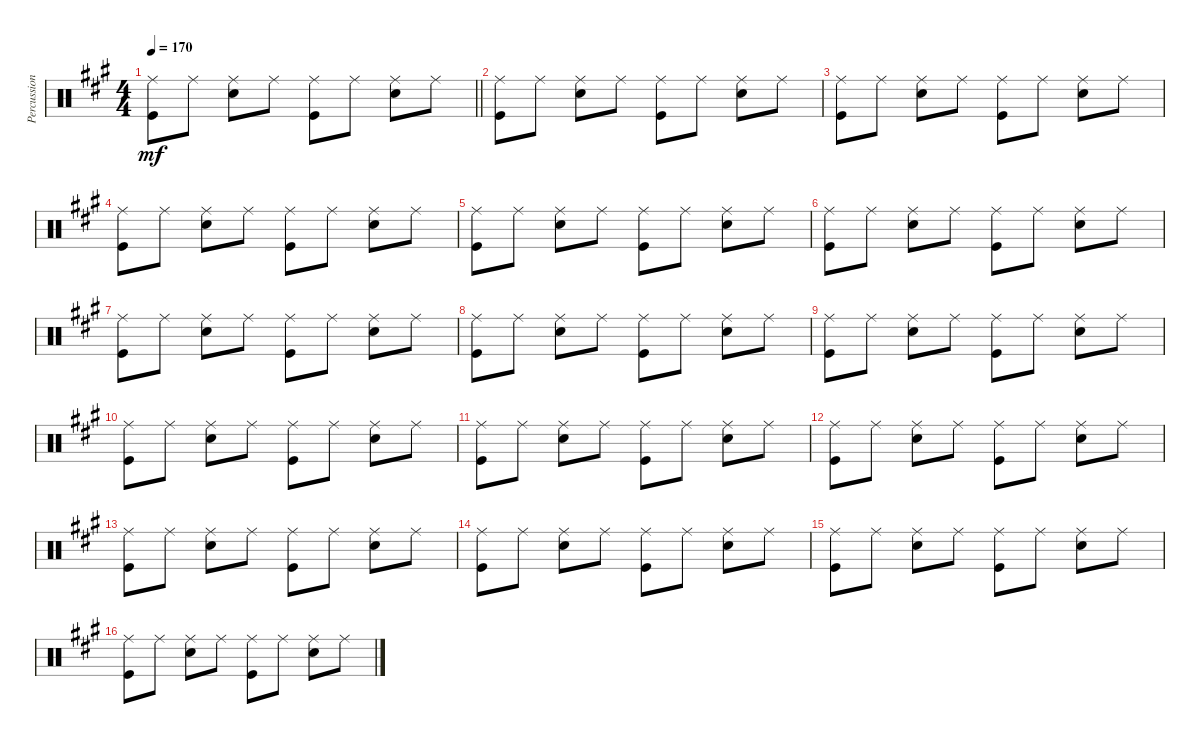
\track ("Percussion" "Percussion") {instrument percussion}
\staff {score}
\articulation defaults
\ts (4 4)
\tempo 170
\clef neutral
\barLineRight lightlight
\ks a
("Ride (middle)" "Kick (hit)").8{dy mf} "Ride (middle)".8 ("Ride (middle)" "Snare (hit) 2").8 "Ride (middle)".8 ("Ride (middle)" "Kick (hit)").8 "Ride (middle)".8 ("Ride (middle)" "Snare (hit) 2").8 "Ride (middle)".8 |
("Ride (middle)" "Kick (hit)").8 "Ride (middle)".8 ("Ride (middle)" "Snare (hit) 2").8 "Ride (middle)".8 ("Ride (middle)" "Kick (hit)").8 "Ride (middle)".8 ("Ride (middle)" "Snare (hit) 2").8 "Ride (middle)".8 |
("Ride (middle)" "Kick (hit)").8 "Ride (middle)".8 ("Ride (middle)" "Snare (hit) 2").8 "Ride (middle)".8 ("Ride (middle)" "Kick (hit)").8 "Ride (middle)".8 ("Ride (middle)" "Snare (hit) 2").8 "Ride (middle)".8 |
("Ride (middle)" "Kick (hit)").8 "Ride (middle)".8 ("Ride (middle)" "Snare (hit) 2").8 "Ride (middle)".8 ("Ride (middle)" "Kick (hit)").8 "Ride (middle)".8 ("Ride (middle)" "Snare (hit) 2").8 "Ride (middle)".8 |
("Ride (middle)" "Kick (hit)").8 "Ride (middle)".8 ("Ride (middle)" "Snare (hit) 2").8 "Ride (middle)".8 ("Ride (middle)" "Kick (hit)").8 "Ride (middle)".8 ("Ride (middle)" "Snare (hit) 2").8 "Ride (middle)".8 |
("Ride (middle)" "Kick (hit)").8 "Ride (middle)".8 ("Ride (middle)" "Snare (hit) 2").8 "Ride (middle)".8 ("Ride (middle)" "Kick (hit)").8 "Ride (middle)".8 ("Ride (middle)" "Snare (hit) 2").8 "Ride (middle)".8 |
("Ride (middle)" "Kick (hit)").8 "Ride (middle)".8 ("Ride (middle)" "Snare (hit) 2").8 "Ride (middle)".8 ("Ride (middle)" "Kick (hit)").8 "Ride (middle)".8 ("Ride (middle)" "Snare (hit) 2").8 "Ride (middle)".8 |
("Ride (middle)" "Kick (hit)").8 "Ride (middle)".8 ("Ride (middle)" "Snare (hit) 2").8 "Ride (middle)".8 ("Ride (middle)" "Kick (hit)").8 "Ride (middle)".8 ("Ride (middle)" "Snare (hit) 2").8 "Ride (middle)".8 |
("Ride (middle)" "Kick (hit)").8 "Ride (middle)".8 ("Ride (middle)" "Snare (hit) 2").8 "Ride (middle)".8 ("Ride (middle)" "Kick (hit)").8 "Ride (middle)".8 ("Ride (middle)" "Snare (hit) 2").8 "Ride (middle)".8 |
("Ride (middle)" "Kick (hit)").8 "Ride (middle)".8 ("Ride (middle)" "Snare (hit) 2").8 "Ride (middle)".8 ("Ride (middle)" "Kick (hit)").8 "Ride (middle)".8 ("Ride (middle)" "Snare (hit) 2").8 "Ride (middle)".8 |
("Ride (middle)" "Kick (hit)").8 "Ride (middle)".8 ("Ride (middle)" "Snare (hit) 2").8 "Ride (middle)".8 ("Ride (middle)" "Kick (hit)").8 "Ride (middle)".8 ("Ride (middle)" "Snare (hit) 2").8 "Ride (middle)".8 |
("Ride (middle)" "Kick (hit)").8 "Ride (middle)".8 ("Ride (middle)" "Snare (hit) 2").8 "Ride (middle)".8 ("Ride (middle)" "Kick (hit)").8 "Ride (middle)".8 ("Ride (middle)" "Snare (hit) 2").8 "Ride (middle)".8 |
("Ride (middle)" "Kick (hit)").8 "Ride (middle)".8 ("Ride (middle)" "Snare (hit) 2").8 "Ride (middle)".8 ("Ride (middle)" "Kick (hit)").8 "Ride (middle)".8 ("Ride (middle)" "Snare (hit) 2").8 "Ride (middle)".8 |
("Ride (middle)" "Kick (hit)").8 "Ride (middle)".8 ("Ride (middle)" "Snare (hit) 2").8 "Ride (middle)".8 ("Ride (middle)" "Kick (hit)").8 "Ride (middle)".8 ("Ride (middle)" "Snare (hit) 2").8 "Ride (middle)".8 |
("Ride (middle)" "Kick (hit)").8 "Ride (middle)".8 ("Ride (middle)" "Snare (hit) 2").8 "Ride (middle)".8 ("Ride (middle)" "Kick (hit)").8 "Ride (middle)".8 ("Ride (middle)" "Snare (hit) 2").8 "Ride (middle)".8 |
("Ride (middle)" "Kick (hit)").8 "Ride (middle)".8 ("Ride (middle)" "Snare (hit) 2").8 "Ride (middle)".8 ("Ride (middle)" "Kick (hit)").8 "Ride (middle)".8 ("Ride (middle)" "Snare (hit) 2").8 "Ride (middle)".8
